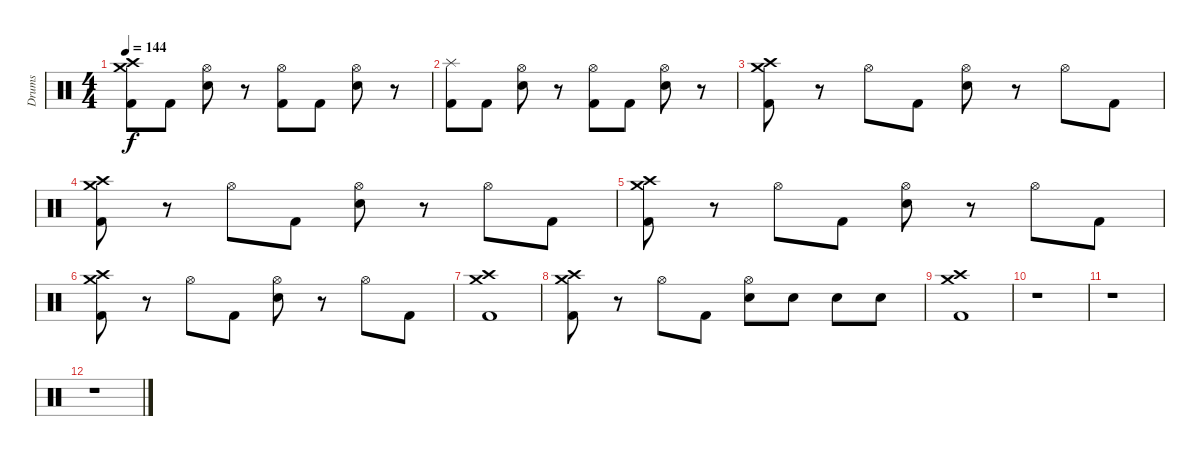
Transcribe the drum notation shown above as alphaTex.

\track ("Drums" "Drums") {instrument percussion}
\staff {score}
\articulation defaults
\ts (4 4)
\tempo 144
\clef neutral
\ks c
("Crash medium (hit)" "Crash high (hit)" "Kick (hit) 2").8{dy f} "Kick (hit) 2".8 ("Hi-Hat (open)" "Snare (hit) 2").8 r.8 ("Hi-Hat (open)" "Kick (hit) 2").8 "Kick (hit) 2".8 ("Hi-Hat (open)" "Snare (hit) 2").8 r.8 |
("Splash (hit)" "Kick (hit) 2").8 "Kick (hit) 2".8 ("Hi-Hat (open)" "Snare (hit) 2").8 r.8 ("Hi-Hat (open)" "Kick (hit) 2").8 "Kick (hit) 2".8 ("Hi-Hat (open)" "Snare (hit) 2").8 r.8 |
("Crash medium (hit)" "Crash high (hit)" "Kick (hit) 2").8 r.8 "Hi-Hat (open)".8 "Kick (hit) 2".8 ("Hi-Hat (open)" "Snare (hit) 2").8 r.8 "Hi-Hat (open)".8 "Kick (hit) 2".8 |
("Crash medium (hit)" "Crash high (hit)" "Kick (hit) 2").8 r.8 "Hi-Hat (open)".8 "Kick (hit) 2".8 ("Hi-Hat (open)" "Snare (hit) 2").8 r.8 "Hi-Hat (open)".8 "Kick (hit) 2".8 |
("Crash medium (hit)" "Crash high (hit)" "Kick (hit) 2").8 r.8 "Hi-Hat (open)".8 "Kick (hit) 2".8 ("Hi-Hat (open)" "Snare (hit) 2").8 r.8 "Hi-Hat (open)".8 "Kick (hit) 2".8 |
("Crash medium (hit)" "Crash high (hit)" "Kick (hit) 2").8 r.8 "Hi-Hat (open)".8 "Kick (hit) 2".8 ("Hi-Hat (open)" "Snare (hit) 2").8 r.8 "Hi-Hat (open)".8 "Kick (hit) 2".8 |
("Crash medium (hit)" "Crash high (hit)" "Kick (hit) 2").1 |
("Crash medium (hit)" "Crash high (hit)" "Kick (hit) 2").8 r.8 "Hi-Hat (open)".8 "Kick (hit) 2".8 ("Hi-Hat (open)" "Snare (hit) 2").8 "Snare (hit) 2".8 "Snare (hit) 2".8 "Snare (hit) 2".8 |
("Crash medium (hit)" "Crash high (hit)" "Kick (hit) 2").1 |
r.1 |
r.1 |
r.1
